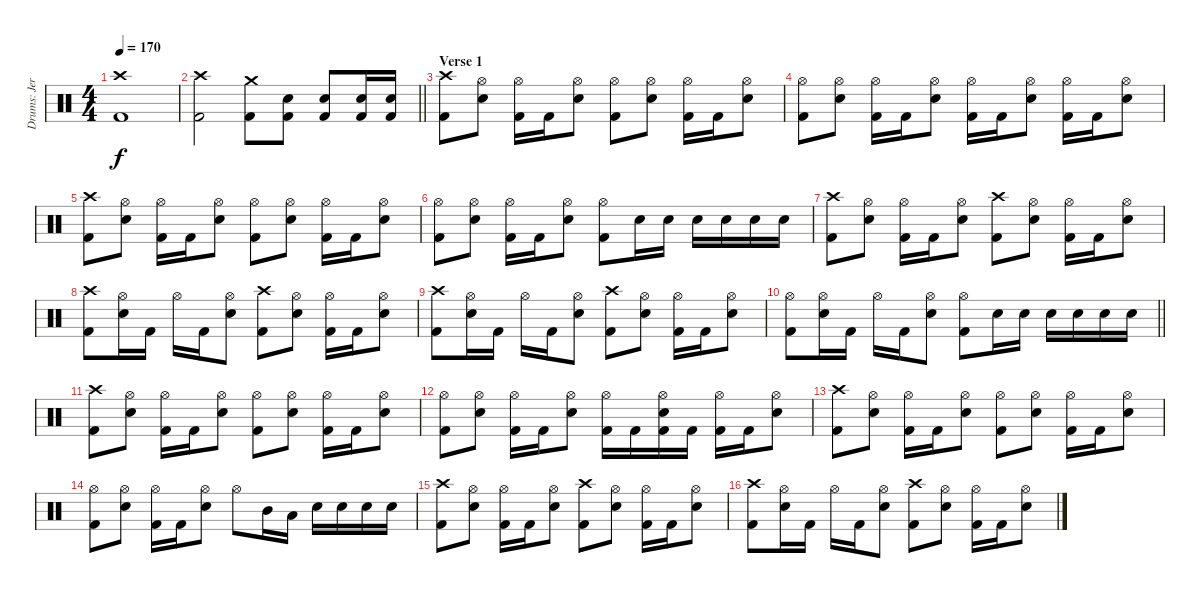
\track ("Drums: Jere Luokkamäki" "Drums: Jer") {instrument percussion}
\staff {score}
\articulation defaults
\ts (4 4)
\tempo 170
\clef neutral
\ks aminor
("Crash high (hit)" "Kick (hit) 2").1{dy f} |
\barLineRight lightlight
("Crash high (hit)" "Kick (hit) 2").2 ("Crash medium (hit)" "Kick (hit) 2").8 ("Electric Snare (hit)" "Kick (hit) 2").8 ("Electric Snare (hit)" "Kick (hit) 2").8 ("Electric Snare (hit)" "Kick (hit) 2").16 ("Electric Snare (hit)" "Kick (hit) 2").16 |
\section ("" "Verse 1")
("Crash high (hit)" "Kick (hit) 2").8 ("Hi-Hat (open)" "Electric Snare (hit)").8 ("Hi-Hat (open)" "Kick (hit) 2").16 "Kick (hit) 2".16 ("Hi-Hat (open)" "Electric Snare (hit)").8 ("Hi-Hat (open)" "Kick (hit) 2").8 ("Hi-Hat (open)" "Electric Snare (hit)").8 ("Hi-Hat (open)" "Kick (hit) 2").16 "Kick (hit) 2".16 ("Hi-Hat (open)" "Electric Snare (hit)").8 |
("Hi-Hat (open)" "Kick (hit) 2").8 ("Hi-Hat (open)" "Electric Snare (hit)").8 ("Hi-Hat (open)" "Kick (hit) 2").16 "Kick (hit) 2".16 ("Hi-Hat (open)" "Electric Snare (hit)").8 ("Hi-Hat (open)" "Kick (hit) 2").16 "Kick (hit) 2".16 ("Hi-Hat (open)" "Electric Snare (hit)").8 ("Hi-Hat (open)" "Kick (hit) 2").16 "Kick (hit) 2".16 ("Hi-Hat (open)" "Electric Snare (hit)").8 |
("Crash high (hit)" "Kick (hit) 2").8 ("Hi-Hat (open)" "Electric Snare (hit)").8 ("Hi-Hat (open)" "Kick (hit) 2").16 "Kick (hit) 2".16 ("Hi-Hat (open)" "Electric Snare (hit)").8 ("Hi-Hat (open)" "Kick (hit) 2").8 ("Hi-Hat (open)" "Electric Snare (hit)").8 ("Hi-Hat (open)" "Kick (hit) 2").16 "Kick (hit) 2".16 ("Hi-Hat (open)" "Electric Snare (hit)").8 |
("Hi-Hat (open)" "Kick (hit) 2").8 ("Hi-Hat (open)" "Electric Snare (hit)").8 ("Hi-Hat (open)" "Kick (hit) 2").16 "Kick (hit) 2".16 ("Hi-Hat (open)" "Electric Snare (hit)").8 ("Hi-Hat (open)" "Kick (hit) 2").8 "Electric Snare (hit)".16 "Electric Snare (hit)".16 "Electric Snare (hit)".16 "Electric Snare (hit)".16 "Electric Snare (hit)".16 "Electric Snare (hit)".16 |
("Crash high (hit)" "Kick (hit) 2").8 ("Hi-Hat (open)" "Electric Snare (hit)").8 ("Hi-Hat (open)" "Kick (hit) 2").16 "Kick (hit) 2".16 ("Hi-Hat (open)" "Electric Snare (hit)").8 ("Crash high (hit)" "Kick (hit) 2").8 ("Hi-Hat (open)" "Electric Snare (hit)").8 ("Hi-Hat (open)" "Kick (hit) 2").16 "Kick (hit) 2".16 ("Hi-Hat (open)" "Electric Snare (hit)").8 |
("Crash high (hit)" "Kick (hit) 2").8 ("Hi-Hat (open)" "Electric Snare (hit)").16 "Kick (hit) 2".16 "Hi-Hat (open)".16 "Kick (hit) 2".16 ("Hi-Hat (open)" "Electric Snare (hit)").8 ("Crash high (hit)" "Kick (hit) 2").8 ("Hi-Hat (open)" "Electric Snare (hit)").8 ("Hi-Hat (open)" "Kick (hit) 2").16 "Kick (hit) 2".16 ("Hi-Hat (open)" "Electric Snare (hit)").8 |
("Crash high (hit)" "Kick (hit) 2").8 ("Hi-Hat (open)" "Electric Snare (hit)").16 "Kick (hit) 2".16 "Hi-Hat (open)".16 "Kick (hit) 2".16 ("Hi-Hat (open)" "Electric Snare (hit)").8 ("Crash high (hit)" "Kick (hit) 2").8 ("Hi-Hat (open)" "Electric Snare (hit)").8 ("Hi-Hat (open)" "Kick (hit) 2").16 "Kick (hit) 2".16 ("Hi-Hat (open)" "Electric Snare (hit)").8 |
\barLineRight lightlight
("Hi-Hat (open)" "Kick (hit) 2").8 ("Hi-Hat (open)" "Electric Snare (hit)").16 "Kick (hit) 2".16 "Hi-Hat (open)".16 "Kick (hit) 2".16 ("Hi-Hat (open)" "Electric Snare (hit)").8 ("Hi-Hat (open)" "Kick (hit) 2").8 "Electric Snare (hit)".16 "Electric Snare (hit)".16 "Electric Snare (hit)".16 "Electric Snare (hit)".16 "Electric Snare (hit)".16 "Electric Snare (hit)".16 |
("Crash high (hit)" "Kick (hit) 2").8 ("Hi-Hat (open)" "Electric Snare (hit)").8 ("Hi-Hat (open)" "Kick (hit) 2").16 "Kick (hit) 2".16 ("Hi-Hat (open)" "Electric Snare (hit)").8 ("Hi-Hat (open)" "Kick (hit) 2").8 ("Hi-Hat (open)" "Electric Snare (hit)").8 ("Hi-Hat (open)" "Kick (hit) 2").16 "Kick (hit) 2".16 ("Hi-Hat (open)" "Electric Snare (hit)").8 |
("Hi-Hat (open)" "Kick (hit) 2").8 ("Hi-Hat (open)" "Electric Snare (hit)").8 ("Hi-Hat (open)" "Kick (hit) 2").16 "Kick (hit) 2".16 ("Hi-Hat (open)" "Electric Snare (hit)").8 ("Hi-Hat (open)" "Kick (hit) 2").16 "Kick (hit) 2".16 ("Hi-Hat (open)" "Electric Snare (hit)" "Kick (hit) 2").16 "Kick (hit) 2".16 ("Hi-Hat (open)" "Kick (hit) 2").16 "Kick (hit) 2".16 ("Hi-Hat (open)" "Electric Snare (hit)").8 |
("Crash high (hit)" "Kick (hit) 2").8 ("Hi-Hat (open)" "Electric Snare (hit)").8 ("Hi-Hat (open)" "Kick (hit) 2").16 "Kick (hit) 2".16 ("Hi-Hat (open)" "Electric Snare (hit)").8 ("Hi-Hat (open)" "Kick (hit) 2").8 ("Hi-Hat (open)" "Electric Snare (hit)").8 ("Hi-Hat (open)" "Kick (hit) 2").16 "Kick (hit) 2".16 ("Hi-Hat (open)" "Electric Snare (hit)").8 |
("Hi-Hat (open)" "Kick (hit) 2").8 ("Hi-Hat (open)" "Electric Snare (hit)").8 ("Hi-Hat (open)" "Kick (hit) 2").16 "Kick (hit) 2".16 ("Hi-Hat (open)" "Electric Snare (hit)").8 "Hi-Hat (open)".8 "Mid Tom (hit)".16 "Low Tom (hit)".16 "Electric Snare (hit)".16 "Electric Snare (hit)".16 "Electric Snare (hit)".16 "Electric Snare (hit)".16 |
("Crash high (hit)" "Kick (hit) 2").8 ("Hi-Hat (open)" "Electric Snare (hit)").8 ("Hi-Hat (open)" "Kick (hit) 2").16 "Kick (hit) 2".16 ("Hi-Hat (open)" "Electric Snare (hit)").8 ("Crash high (hit)" "Kick (hit) 2").8 ("Hi-Hat (open)" "Electric Snare (hit)").8 ("Hi-Hat (open)" "Kick (hit) 2").16 "Kick (hit) 2".16 ("Hi-Hat (open)" "Electric Snare (hit)").8 |
("Crash high (hit)" "Kick (hit) 2").8 ("Hi-Hat (open)" "Electric Snare (hit)").16 "Kick (hit) 2".16 "Hi-Hat (open)".16 "Kick (hit) 2".16 ("Hi-Hat (open)" "Electric Snare (hit)").8 ("Crash high (hit)" "Kick (hit) 2").8 ("Hi-Hat (open)" "Electric Snare (hit)").8 ("Hi-Hat (open)" "Kick (hit) 2").16 "Kick (hit) 2".16 ("Hi-Hat (open)" "Electric Snare (hit)").8
